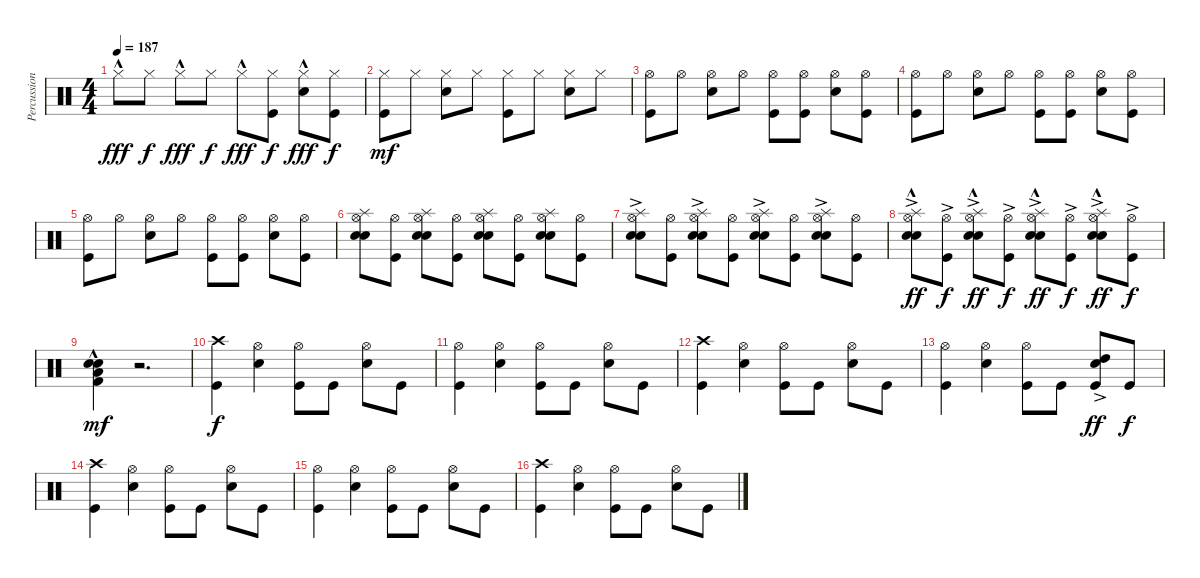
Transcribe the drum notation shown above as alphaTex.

\track ("Percussions" "Percussion") {instrument percussion}
\staff {score}
\articulation defaults
\ts (4 4)
\tempo 187
\clef neutral
\ks c "Hi-Hat (closed)"{hac}.8{dy fff} "Hi-Hat (closed)".8{dy f} "Hi-Hat (closed)"{hac}.8{dy fff} "Hi-Hat (closed)".8{dy f} "Hi-Hat (closed)"{hac}.8{dy fff}
("Hi-Hat (closed)" "Kick (hit)").8{dy f} ("Hi-Hat (closed)"{hac} "Electric Snare (hit)").8{dy fff} ("Hi-Hat (closed)" "Kick (hit)").8{dy f} |
("Hi-Hat (closed)" "Kick (hit)").8{dy mf} "Hi-Hat (closed)".8 ("Hi-Hat (closed)" "Electric Snare (hit)").8 "Hi-Hat (closed)".8 ("Kick (hit)" "Hi-Hat (closed)").8 "Hi-Hat (closed)".8 ("Electric Snare (hit)" "Hi-Hat (closed)").8 "Hi-Hat (closed)".8 |
("Hi-Hat (open)" "Kick (hit)").8 "Hi-Hat (open)".8 ("Hi-Hat (open)" "Electric Snare (hit)").8 "Hi-Hat (open)".8 ("Hi-Hat (open)" "Kick (hit)").8 ("Hi-Hat (open)" "Kick (hit)").8 ("Hi-Hat (open)" "Electric Snare (hit)").8 ("Hi-Hat (open)" "Kick (hit)").8 |
("Hi-Hat (open)" "Kick (hit)").8 "Hi-Hat (open)".8 ("Hi-Hat (open)" "Electric Snare (hit)").8 "Hi-Hat (open)".8 ("Hi-Hat (open)" "Kick (hit)").8 ("Hi-Hat (open)" "Kick (hit)").8 ("Hi-Hat (open)" "Electric Snare (hit)").8 ("Hi-Hat (open)" "Kick (hit)").8 |
("Hi-Hat (open)" "Kick (hit)").8 "Hi-Hat (open)".8 ("Hi-Hat (open)" "Electric Snare (hit)").8 "Hi-Hat (open)".8 ("Hi-Hat (open)" "Kick (hit)").8 ("Hi-Hat (open)" "Kick (hit)").8 ("Hi-Hat (open)" "Electric Snare (hit)").8 ("Hi-Hat (open)" "Kick (hit)").8 |
("Snare (hit) 2" "Electric Snare (hit)" "Hi-Hat (open)" "Splash (hit)").8 ("Kick (hit)" "Hi-Hat (open)").8 ("Snare (hit) 2" "Electric Snare (hit)" "Splash (hit)" "Hi-Hat (open)").8 ("Hi-Hat (open)" "Kick (hit)").8 ("Snare (hit) 2" "Electric Snare (hit)" "Hi-Hat (open)" "Splash (hit)").8 ("Kick (hit)" "Hi-Hat (open)").8 ("Snare (hit) 2" "Electric Snare (hit)" "Splash (hit)" "Hi-Hat (open)").8 ("Hi-Hat (open)" "Kick (hit)").8 |
("Snare (hit) 2" "Electric Snare (hit)" "Hi-Hat (open)" "Splash (hit)"{ac}).8 ("Kick (hit)" "Hi-Hat (open)").8 ("Snare (hit) 2" "Electric Snare (hit)" "Splash (hit)"{ac} "Hi-Hat (open)").8 ("Hi-Hat (open)" "Kick (hit)").8 ("Snare (hit) 2" "Electric Snare (hit)" "Hi-Hat (open)" "Splash (hit)"{ac}).8 ("Kick (hit)" "Hi-Hat (open)").8 ("Snare (hit) 2" "Electric Snare (hit)" "Splash (hit)"{ac} "Hi-Hat (open)").8 ("Hi-Hat (open)" "Kick (hit)").8 |
("Snare (hit) 2"{ac} "Electric Snare (hit)"{ac} "Hi-Hat (open)"{ac} "Splash (hit)"{hac}).8{dy ff} ("Kick (hit)"{ac} "Hi-Hat (open)"{ac}).8{dy f} ("Snare (hit) 2"{ac} "Electric Snare (hit)"{ac} "Splash (hit)"{hac} "Hi-Hat (open)"{ac}).8{dy ff} ("Hi-Hat (open)"{ac} "Kick (hit)"{ac}).8{dy f} ("Snare (hit) 2"{ac} "Electric Snare (hit)"{ac} "Hi-Hat (open)"{ac} "Splash (hit)"{hac}).8{dy ff} ("Kick (hit)"{ac} "Hi-Hat (open)"{ac}).8{dy f} ("Snare (hit) 2"{ac} "Electric Snare (hit)"{ac} "Splash (hit)"{hac} "Hi-Hat (open)"{ac}).8{dy ff} ("Hi-Hat (open)"{ac} "Kick (hit)"{ac}).8{dy f} |
("Snare (hit) 2"{hac} "Electric Snare (hit)"{hac} "Kick (hit) 2" "Low Floor Tom (hit)").4{dy mf} r.2{d} |
("Kick (hit)" "Crash high (hit)").4{dy f} ("Electric Snare (hit)" "Hi-Hat (open)").4 ("Kick (hit)" "Hi-Hat (open)").8 "Kick (hit)".8 ("Electric Snare (hit)" "Hi-Hat (open)").8 "Kick (hit)".8 |
("Kick (hit)" "Hi-Hat (open)").4 ("Electric Snare (hit)" "Hi-Hat (open)").4 ("Kick (hit)" "Hi-Hat (open)").8 "Kick (hit)".8 ("Electric Snare (hit)" "Hi-Hat (open)").8 "Kick (hit)".8 |
("Kick (hit)" "Crash high (hit)").4 ("Electric Snare (hit)" "Hi-Hat (open)").4 ("Kick (hit)" "Hi-Hat (open)").8 "Kick (hit)".8 ("Electric Snare (hit)" "Hi-Hat (open)").8 "Kick (hit)".8 |
("Kick (hit)" "Hi-Hat (open)").4 ("Electric Snare (hit)" "Hi-Hat (open)").4 ("Kick (hit)" "Hi-Hat (open)").8 "Kick (hit)".8 ("High Tom (hit)"{ac} "Electric Snare (hit)"{ac} "Kick (hit)").8{dy ff} "Kick (hit)".8{dy f} |
("Kick (hit)" "Crash high (hit)").4 ("Electric Snare (hit)" "Hi-Hat (open)").4 ("Kick (hit)" "Hi-Hat (open)").8 "Kick (hit)".8 ("Electric Snare (hit)" "Hi-Hat (open)").8 "Kick (hit)".8 |
("Kick (hit)" "Hi-Hat (open)").4 ("Electric Snare (hit)" "Hi-Hat (open)").4 ("Kick (hit)" "Hi-Hat (open)").8 "Kick (hit)".8 ("Electric Snare (hit)" "Hi-Hat (open)").8 "Kick (hit)".8 |
("Kick (hit)" "Crash high (hit)").4 ("Electric Snare (hit)" "Hi-Hat (open)").4 ("Kick (hit)" "Hi-Hat (open)").8 "Kick (hit)".8 ("Electric Snare (hit)" "Hi-Hat (open)").8 "Kick (hit)".8
